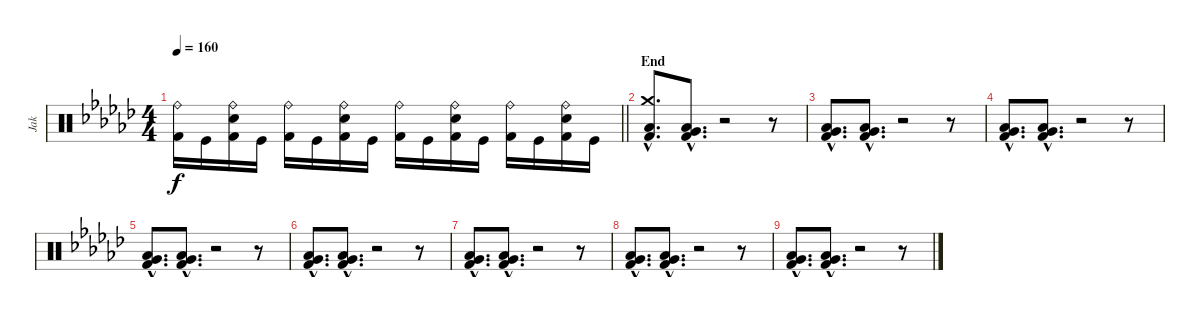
\track ("Jak" "Jak") {instrument percussion}
\staff {score}
\articulation defaults
\ts (4 4)
\tempo 160
\clef neutral
\barLineRight lightlight
\ks ebminor
("Ride (bell)" "Kick (hit) 2").16{dy f} "Kick (hit)".16 ("Ride (bell)" "Snare (hit) 2" "Kick (hit) 2").16 "Kick (hit)".16 ("Ride (bell)" "Kick (hit) 2").16 "Kick (hit)".16 ("Ride (bell)" "Snare (hit) 2" "Kick (hit) 2").16 "Kick (hit)".16 ("Ride (bell)" "Kick (hit) 2").16 "Kick (hit)".16 ("Ride (bell)" "Snare (hit) 2" "Kick (hit) 2").16 "Kick (hit)".16 ("Ride (bell)" "Kick (hit) 2").16 "Kick (hit)".16 ("Ride (bell)" "Snare (hit) 2" "Kick (hit) 2").16 "Kick (hit)".16 |
\section ("" "End")
("Crash medium (hit)"{hac} "Low Floor Tom (hit)"{hac} "Kick (hit) 2"{hac}).8{d} ("Very Low Tom (hit)"{hac} "Low Floor Tom (hit)"{hac} "Kick (hit) 2"{hac}).8{d} r.2 r.8 |
("Very Low Tom (hit)"{hac} "Low Floor Tom (hit)"{hac} "Kick (hit) 2"{hac}).8{d} ("Very Low Tom (hit)"{hac} "Low Floor Tom (hit)"{hac} "Kick (hit) 2"{hac}).8{d} r.2 r.8 |
("Very Low Tom (hit)"{hac} "Low Floor Tom (hit)"{hac} "Kick (hit) 2"{hac}).8{d} ("Very Low Tom (hit)"{hac} "Low Floor Tom (hit)"{hac} "Kick (hit) 2"{hac}).8{d} r.2 r.8 |
("Very Low Tom (hit)"{hac} "Low Floor Tom (hit)"{hac} "Kick (hit) 2"{hac}).8{d} ("Very Low Tom (hit)"{hac} "Low Floor Tom (hit)"{hac} "Kick (hit) 2"{hac}).8{d} r.2 r.8 |
("Very Low Tom (hit)"{hac} "Low Floor Tom (hit)"{hac} "Kick (hit) 2"{hac}).8{d} ("Very Low Tom (hit)"{hac} "Low Floor Tom (hit)"{hac} "Kick (hit) 2"{hac}).8{d} r.2 r.8 |
("Very Low Tom (hit)"{hac} "Low Floor Tom (hit)"{hac} "Kick (hit) 2"{hac}).8{d} ("Very Low Tom (hit)"{hac} "Low Floor Tom (hit)"{hac} "Kick (hit) 2"{hac}).8{d} r.2 r.8 |
("Very Low Tom (hit)"{hac} "Low Floor Tom (hit)"{hac} "Kick (hit) 2"{hac}).8{d} ("Very Low Tom (hit)"{hac} "Low Floor Tom (hit)"{hac} "Kick (hit) 2"{hac}).8{d} r.2 r.8 |
("Very Low Tom (hit)"{hac} "Low Floor Tom (hit)"{hac} "Kick (hit) 2"{hac}).8{d} ("Very Low Tom (hit)"{hac} "Low Floor Tom (hit)"{hac} "Kick (hit) 2"{hac}).8{d} r.2 r.8
